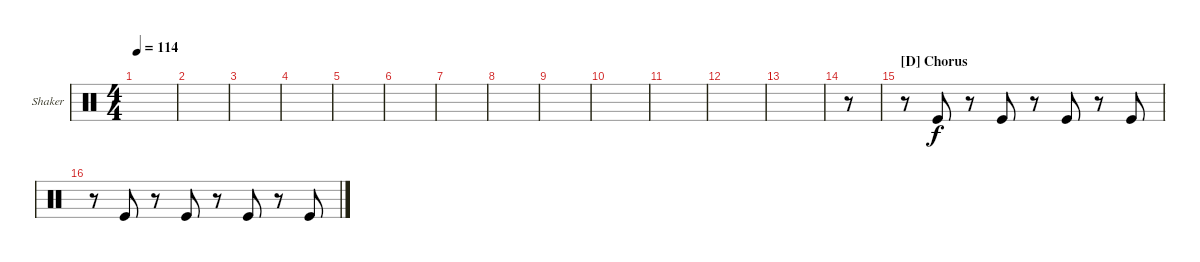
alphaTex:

\defaultSystemsLayout 4
\bracketExtendMode groupsimilarinstruments
\firstSystemTrackNameOrientation horizontal
\otherSystemsTrackNameOrientation horizontal
\track ("Shaker" "Shaker") {instrument percussion}
\staff {score}
\articulation defaults
\ts (4 4)
\tempo 114
\clef neutral
\ks c
|
|
|
|
|
|
|
|
|
|
|
|
|
r.8 |
\section ("D" "Chorus")
r.8 "Kick (hit)".8 r.8 "Kick (hit)".8 r.8 "Kick (hit)".8 r.8 "Kick (hit)".8 |
r.8 "Kick (hit)".8 r.8 "Kick (hit)".8 r.8 "Kick (hit)".8 r.8 "Kick (hit)".8
